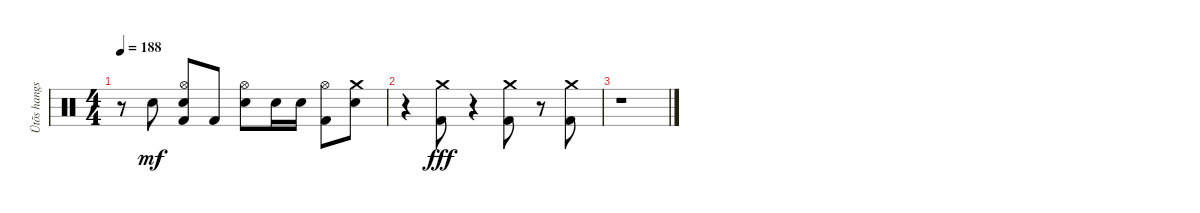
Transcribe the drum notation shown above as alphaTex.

\track ("Ütõs hangszer" "Ütõs hangs") {instrument percussion}
\staff {score}
\articulation defaults
\ts (4 4)
\tempo 188
\clef neutral
\ks c
r.8{dy mf} "Electric Snare (hit)".8 ("Hi-Hat (open)" "Electric Snare (hit)" "Kick (hit) 2").8 "Kick (hit) 2".8 ("Hi-Hat (open)" "Electric Snare (hit)").8 "Electric Snare (hit)".16 "Electric Snare (hit)".16 ("Hi-Hat (open)" "Kick (hit) 2").8 ("Crash medium (hit)" "Electric Snare (hit)").8 |
r.4 ("Crash medium (hit)" "Kick (hit) 2").8{dy fff} r.4{volume 0} ("Crash medium (hit)" "Kick (hit) 2").8{volume 16} r.8{volume 0} ("Crash medium (hit)" "Kick (hit) 2").8{volume 16} |
r.1{volume 0}
